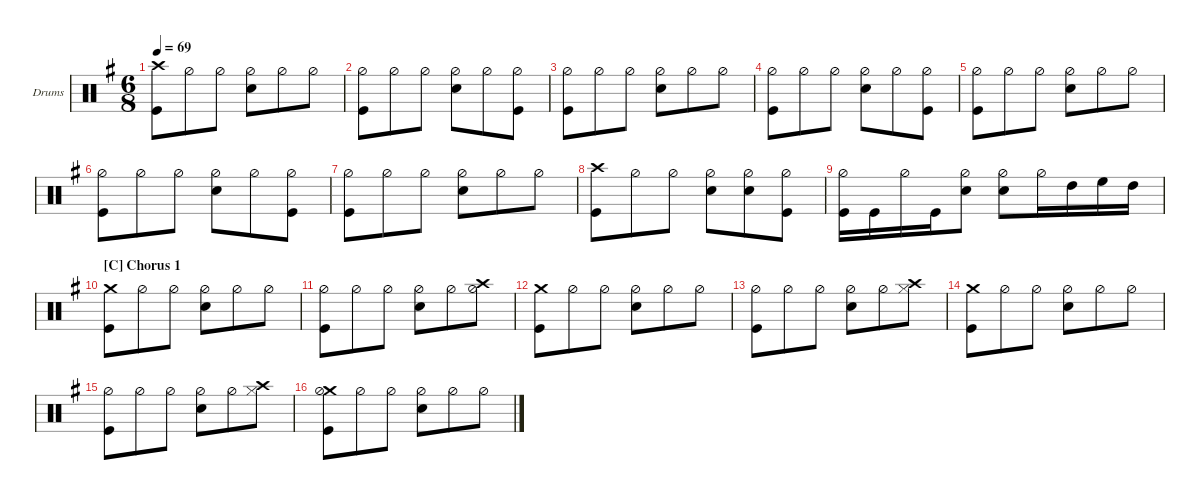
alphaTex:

\hideDynamics
\bracketExtendMode groupsimilarinstruments
\firstSystemTrackNameOrientation horizontal
\otherSystemsTrackNameOrientation horizontal
\track ("Drumkit" "Drums") {multiBarRest instrument percussion}
\staff {score}
\articulation defaults
\ts (6 8)
\tempo 69
\clef neutral
\ks g
("Crash high (hit)" "Kick (hit)").8{dy f} "Hi-Hat (half)".8 "Hi-Hat (half)".8 ("Hi-Hat (half)" "Snare (hit) 2").8 "Hi-Hat (half)".8 "Hi-Hat (half)".8 |
("Hi-Hat (half)" "Kick (hit)").8 "Hi-Hat (half)".8 "Hi-Hat (half)".8 ("Hi-Hat (half)" "Snare (hit) 2").8 "Hi-Hat (half)".8 ("Hi-Hat (half)" "Kick (hit)").8 |
("Hi-Hat (half)" "Kick (hit)").8 "Hi-Hat (half)".8 "Hi-Hat (half)".8 ("Hi-Hat (half)" "Snare (hit) 2").8 "Hi-Hat (half)".8 "Hi-Hat (half)".8 |
("Hi-Hat (half)" "Kick (hit)").8 "Hi-Hat (half)".8 "Hi-Hat (half)".8 ("Hi-Hat (half)" "Snare (hit) 2").8 "Hi-Hat (half)".8 ("Hi-Hat (half)" "Kick (hit)").8 |
("Hi-Hat (half)" "Kick (hit)").8 "Hi-Hat (half)".8 "Hi-Hat (half)".8 ("Hi-Hat (half)" "Snare (hit) 2").8 "Hi-Hat (half)".8 "Hi-Hat (half)".8 |
("Hi-Hat (half)" "Kick (hit)").8 "Hi-Hat (half)".8 "Hi-Hat (half)".8 ("Hi-Hat (half)" "Snare (hit) 2").8 "Hi-Hat (half)".8 ("Hi-Hat (half)" "Kick (hit)").8 |
("Hi-Hat (half)" "Kick (hit)").8 "Hi-Hat (half)".8 "Hi-Hat (half)".8 ("Hi-Hat (half)" "Snare (hit) 2").8 "Hi-Hat (half)".8 "Hi-Hat (half)".8 |
("Crash high (hit)" "Kick (hit)").8 "Hi-Hat (half)".8 "Hi-Hat (half)".8 ("Hi-Hat (half)" "Snare (hit) 2").8 ("Hi-Hat (half)" "Snare (hit) 2").8 ("Hi-Hat (half)" "Kick (hit)").8 |
("Hi-Hat (half)" "Kick (hit)").16 "Kick (hit)".16 "Hi-Hat (half)".16 "Kick (hit)".16 ("Hi-Hat (half)" "Snare (hit) 2").8 ("Hi-Hat (half)" "Snare (hit) 2").8 "Hi-Hat (half)".16 "High Tom (hit)".16 "High Floor Tom (hit)".16 "High Tom (hit)".16 |
\section ("C" "Chorus 1")
("Crash medium (hit)" "Kick (hit)").8 "Hi-Hat (half)".8 "Hi-Hat (half)".8 ("Hi-Hat (half)" "Snare (hit) 2").8 "Hi-Hat (half)".8 "Hi-Hat (half)".8 |
("Hi-Hat (half)" "Kick (hit)").8 "Hi-Hat (half)".8 "Hi-Hat (half)".8 ("Hi-Hat (half)" "Snare (hit) 2").8 "Hi-Hat (half)".8 ("Crash high (hit)" "Hi-Hat (half)").8 |
("Crash medium (hit)" "Kick (hit)").8 "Hi-Hat (half)".8 "Hi-Hat (half)".8 ("Hi-Hat (half)" "Snare (hit) 2").8 "Hi-Hat (half)".8 "Hi-Hat (half)".8 |
("Hi-Hat (half)" "Kick (hit)").8 "Hi-Hat (half)".8 "Hi-Hat (half)".8 ("Hi-Hat (half)" "Snare (hit) 2").8 "Hi-Hat (half)".8 ("Crash high (hit)" "Hi-Hat (closed)").8 |
("Crash medium (hit)" "Kick (hit)").8 "Hi-Hat (half)".8 "Hi-Hat (half)".8 ("Hi-Hat (half)" "Snare (hit) 2").8 "Hi-Hat (half)".8 "Hi-Hat (half)".8 |
("Hi-Hat (half)" "Kick (hit)").8 "Hi-Hat (half)".8 "Hi-Hat (half)".8 ("Hi-Hat (half)" "Snare (hit) 2").8 "Hi-Hat (half)".8 ("Crash high (hit)" "Hi-Hat (closed)").8 |
("Crash medium (hit)" "Kick (hit)" "Hi-Hat (half)").8 "Hi-Hat (half)".8 "Hi-Hat (half)".8 ("Hi-Hat (half)" "Snare (hit) 2").8 "Hi-Hat (half)".8 "Hi-Hat (half)".8
